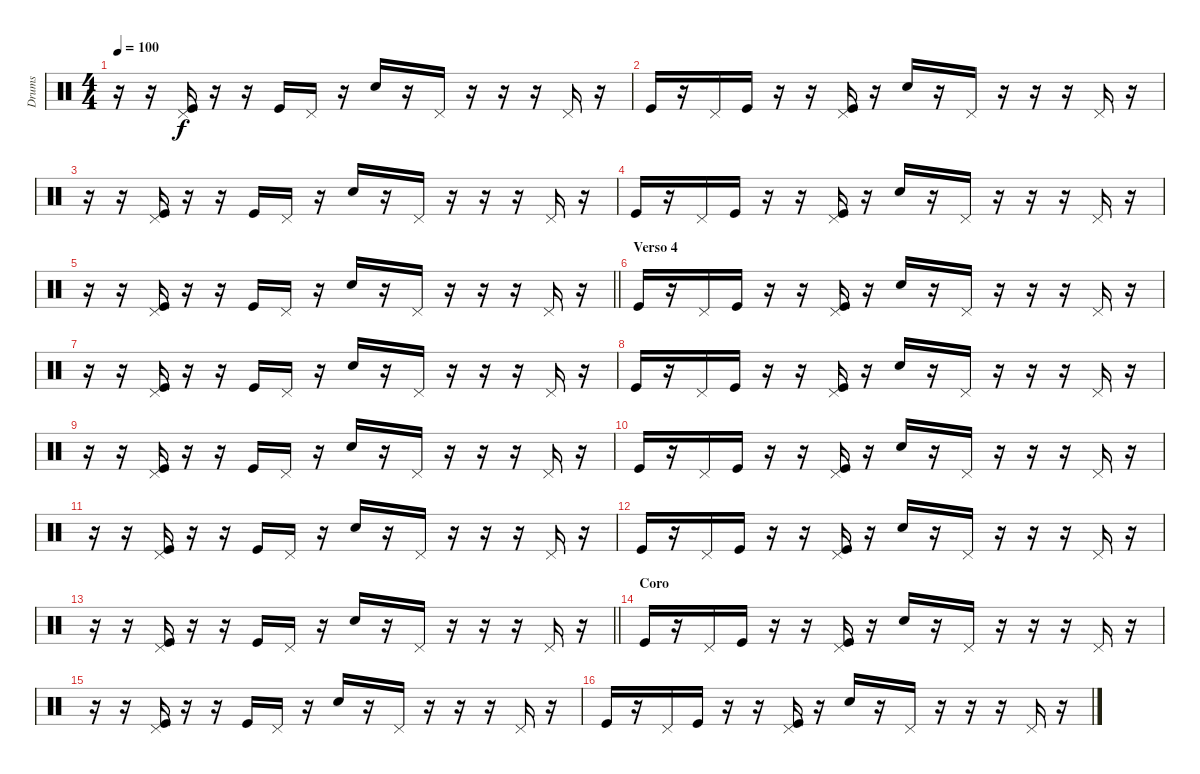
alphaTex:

\track ("Drums " "Drums ") {instrument percussion}
\staff {score}
\articulation defaults
\ts (4 4)
\tempo 100
\clef neutral
\ks c
r.16{dy f} r.16 ("Pedal Hi-Hat (hit)" "Kick (hit)").16 r.16 r.16 "Kick (hit)".16 "Pedal Hi-Hat (hit)".16 r.16 "Snare (hit) 2".16 r.16 "Pedal Hi-Hat (hit)".16 r.16 r.16 r.16 "Pedal Hi-Hat (hit)".16 r.16 |
"Kick (hit)".16 r.16 "Pedal Hi-Hat (hit)".16 "Kick (hit)".16 r.16 r.16 ("Pedal Hi-Hat (hit)" "Kick (hit)").16 r.16 "Snare (hit) 2".16 r.16 "Pedal Hi-Hat (hit)".16 r.16 r.16 r.16 "Pedal Hi-Hat (hit)".16 r.16 |
r.16 r.16 ("Pedal Hi-Hat (hit)" "Kick (hit)").16 r.16 r.16 "Kick (hit)".16 "Pedal Hi-Hat (hit)".16 r.16 "Snare (hit) 2".16 r.16 "Pedal Hi-Hat (hit)".16 r.16 r.16 r.16 "Pedal Hi-Hat (hit)".16 r.16 |
"Kick (hit)".16 r.16 "Pedal Hi-Hat (hit)".16 "Kick (hit)".16 r.16 r.16 ("Pedal Hi-Hat (hit)" "Kick (hit)").16 r.16 "Snare (hit) 2".16 r.16 "Pedal Hi-Hat (hit)".16 r.16 r.16 r.16 "Pedal Hi-Hat (hit)".16 r.16 |
\barLineRight lightlight
r.16 r.16 ("Pedal Hi-Hat (hit)" "Kick (hit)").16 r.16 r.16 "Kick (hit)".16 "Pedal Hi-Hat (hit)".16 r.16 "Snare (hit) 2".16 r.16 "Pedal Hi-Hat (hit)".16 r.16 r.16 r.16 "Pedal Hi-Hat (hit)".16 r.16 |
\section ("" "Verso 4")
"Kick (hit)".16 r.16 "Pedal Hi-Hat (hit)".16 "Kick (hit)".16 r.16 r.16 ("Pedal Hi-Hat (hit)" "Kick (hit)").16 r.16 "Snare (hit) 2".16 r.16 "Pedal Hi-Hat (hit)".16 r.16 r.16 r.16 "Pedal Hi-Hat (hit)".16 r.16 |
r.16 r.16 ("Pedal Hi-Hat (hit)" "Kick (hit)").16 r.16 r.16 "Kick (hit)".16 "Pedal Hi-Hat (hit)".16 r.16 "Snare (hit) 2".16 r.16 "Pedal Hi-Hat (hit)".16 r.16 r.16 r.16 "Pedal Hi-Hat (hit)".16 r.16 |
"Kick (hit)".16 r.16 "Pedal Hi-Hat (hit)".16 "Kick (hit)".16 r.16 r.16 ("Pedal Hi-Hat (hit)" "Kick (hit)").16 r.16 "Snare (hit) 2".16 r.16 "Pedal Hi-Hat (hit)".16 r.16 r.16 r.16 "Pedal Hi-Hat (hit)".16 r.16 |
r.16 r.16 ("Pedal Hi-Hat (hit)" "Kick (hit)").16 r.16 r.16 "Kick (hit)".16 "Pedal Hi-Hat (hit)".16 r.16 "Snare (hit) 2".16 r.16 "Pedal Hi-Hat (hit)".16 r.16 r.16 r.16 "Pedal Hi-Hat (hit)".16 r.16 |
"Kick (hit)".16 r.16 "Pedal Hi-Hat (hit)".16 "Kick (hit)".16 r.16 r.16 ("Pedal Hi-Hat (hit)" "Kick (hit)").16 r.16 "Snare (hit) 2".16 r.16 "Pedal Hi-Hat (hit)".16 r.16 r.16 r.16 "Pedal Hi-Hat (hit)".16 r.16 |
r.16 r.16 ("Pedal Hi-Hat (hit)" "Kick (hit)").16 r.16 r.16 "Kick (hit)".16 "Pedal Hi-Hat (hit)".16 r.16 "Snare (hit) 2".16 r.16 "Pedal Hi-Hat (hit)".16 r.16 r.16 r.16 "Pedal Hi-Hat (hit)".16 r.16 |
"Kick (hit)".16 r.16 "Pedal Hi-Hat (hit)".16 "Kick (hit)".16 r.16 r.16 ("Pedal Hi-Hat (hit)" "Kick (hit)").16 r.16 "Snare (hit) 2".16 r.16 "Pedal Hi-Hat (hit)".16 r.16 r.16 r.16 "Pedal Hi-Hat (hit)".16 r.16 |
\barLineRight lightlight
r.16 r.16 ("Pedal Hi-Hat (hit)" "Kick (hit)").16 r.16 r.16 "Kick (hit)".16 "Pedal Hi-Hat (hit)".16 r.16 "Snare (hit) 2".16 r.16 "Pedal Hi-Hat (hit)".16 r.16 r.16 r.16 "Pedal Hi-Hat (hit)".16 r.16 |
\section ("" "Coro ")
"Kick (hit)".16 r.16 "Pedal Hi-Hat (hit)".16 "Kick (hit)".16 r.16 r.16 ("Pedal Hi-Hat (hit)" "Kick (hit)").16 r.16 "Snare (hit) 2".16 r.16 "Pedal Hi-Hat (hit)".16 r.16 r.16 r.16 "Pedal Hi-Hat (hit)".16 r.16 |
r.16 r.16 ("Pedal Hi-Hat (hit)" "Kick (hit)").16 r.16 r.16 "Kick (hit)".16 "Pedal Hi-Hat (hit)".16 r.16 "Snare (hit) 2".16 r.16 "Pedal Hi-Hat (hit)".16 r.16 r.16 r.16 "Pedal Hi-Hat (hit)".16 r.16 |
"Kick (hit)".16 r.16 "Pedal Hi-Hat (hit)".16 "Kick (hit)".16 r.16 r.16 ("Pedal Hi-Hat (hit)" "Kick (hit)").16 r.16 "Snare (hit) 2".16 r.16 "Pedal Hi-Hat (hit)".16 r.16 r.16 r.16 "Pedal Hi-Hat (hit)".16 r.16
